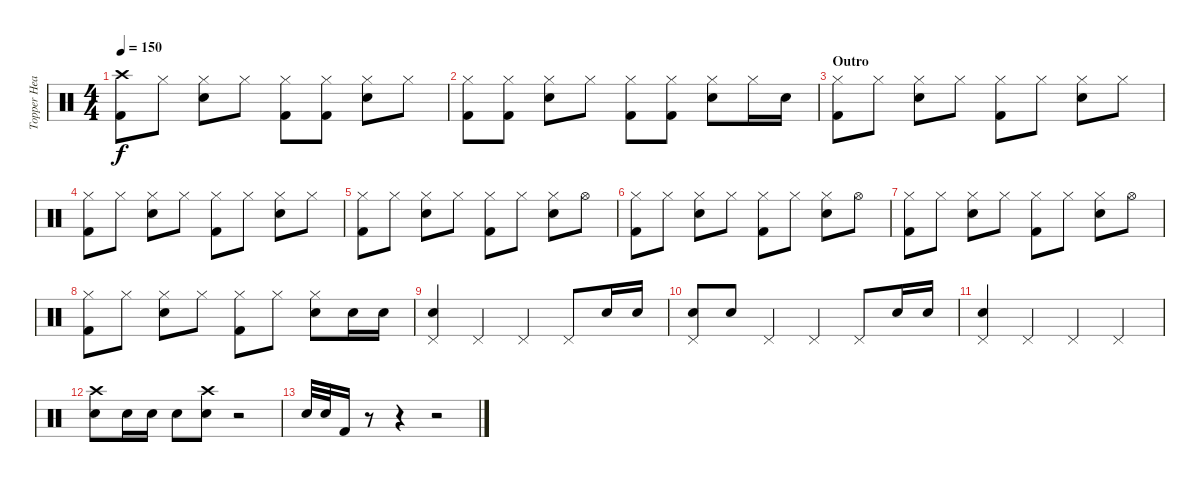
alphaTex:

\track ("Topper Headon - Drums" "Topper Hea") {instrument percussion}
\staff {score}
\articulation defaults
\ts (4 4)
\tempo 150
\clef neutral
\ks c
("Crash high (hit)" "Kick (hit) 2").8{dy f} "Hi-Hat (closed)".8 ("Hi-Hat (closed)" "Electric Snare (hit)").8 "Hi-Hat (closed)".8 ("Hi-Hat (closed)" "Kick (hit) 2").8 ("Hi-Hat (closed)" "Kick (hit) 2").8 ("Hi-Hat (closed)" "Electric Snare (hit)").8 "Hi-Hat (closed)".8 |
("Hi-Hat (closed)" "Kick (hit) 2").8 ("Hi-Hat (closed)" "Kick (hit) 2").8 ("Hi-Hat (closed)" "Electric Snare (hit)").8 "Hi-Hat (closed)".8 ("Hi-Hat (closed)" "Kick (hit) 2").8 ("Hi-Hat (closed)" "Kick (hit) 2").8 ("Hi-Hat (closed)" "Electric Snare (hit)").8 "Hi-Hat (closed)".16 "Electric Snare (hit)".16 |
\section ("" "Outro")
("Hi-Hat (closed)" "Kick (hit) 2").8 "Hi-Hat (closed)".8 ("Hi-Hat (closed)" "Electric Snare (hit)").8 "Hi-Hat (closed)".8 ("Hi-Hat (closed)" "Kick (hit) 2").8 "Hi-Hat (closed)".8 ("Hi-Hat (closed)" "Electric Snare (hit)").8 "Hi-Hat (closed)".8 |
("Hi-Hat (closed)" "Kick (hit) 2").8 "Hi-Hat (closed)".8 ("Hi-Hat (closed)" "Electric Snare (hit)").8 "Hi-Hat (closed)".8 ("Hi-Hat (closed)" "Kick (hit) 2").8 "Hi-Hat (closed)".8 ("Hi-Hat (closed)" "Electric Snare (hit)").8 "Hi-Hat (closed)".8 |
("Hi-Hat (closed)" "Kick (hit) 2").8 "Hi-Hat (closed)".8 ("Hi-Hat (closed)" "Electric Snare (hit)").8 "Hi-Hat (closed)".8 ("Hi-Hat (closed)" "Kick (hit) 2").8 "Hi-Hat (closed)".8 ("Hi-Hat (closed)" "Electric Snare (hit)").8 "Hi-Hat (open)".8 |
("Hi-Hat (closed)" "Kick (hit) 2").8 "Hi-Hat (closed)".8 ("Hi-Hat (closed)" "Electric Snare (hit)").8 "Hi-Hat (closed)".8 ("Hi-Hat (closed)" "Kick (hit) 2").8 "Hi-Hat (closed)".8 ("Hi-Hat (closed)" "Electric Snare (hit)").8 "Hi-Hat (open)".8 |
("Hi-Hat (closed)" "Kick (hit) 2").8 "Hi-Hat (closed)".8 ("Hi-Hat (closed)" "Electric Snare (hit)").8 "Hi-Hat (closed)".8 ("Hi-Hat (closed)" "Kick (hit) 2").8 "Hi-Hat (closed)".8 ("Hi-Hat (closed)" "Electric Snare (hit)").8 "Hi-Hat (open)".8 |
("Hi-Hat (closed)" "Kick (hit) 2").8 "Hi-Hat (closed)".8 ("Hi-Hat (closed)" "Electric Snare (hit)").8 "Hi-Hat (closed)".8 ("Hi-Hat (closed)" "Kick (hit) 2").8 "Hi-Hat (closed)".8 ("Hi-Hat (closed)" "Electric Snare (hit)").8 "Electric Snare (hit)".16 "Electric Snare (hit)".16 |
("Pedal Hi-Hat (hit)" "Electric Snare (hit)").4 "Pedal Hi-Hat (hit)".4 "Pedal Hi-Hat (hit)".4 "Pedal Hi-Hat (hit)".8 "Electric Snare (hit)".16 "Electric Snare (hit)".16 |
("Pedal Hi-Hat (hit)" "Electric Snare (hit)").8 "Electric Snare (hit)".8 "Pedal Hi-Hat (hit)".4 "Pedal Hi-Hat (hit)".4 "Pedal Hi-Hat (hit)".8 "Electric Snare (hit)".16 "Electric Snare (hit)".16 |
("Pedal Hi-Hat (hit)" "Electric Snare (hit)").4 "Pedal Hi-Hat (hit)".4 "Pedal Hi-Hat (hit)".4 "Pedal Hi-Hat (hit)".4 |
("Crash high (hit)" "Electric Snare (hit)").8 "Electric Snare (hit)".16 "Electric Snare (hit)".16 "Electric Snare (hit)".8 ("Crash high (hit)" "Electric Snare (hit)").8 r.2 |
"Electric Snare (hit)".32 "Electric Snare (hit)".32 "Kick (hit) 2".16 r.8 r.4 r.2
